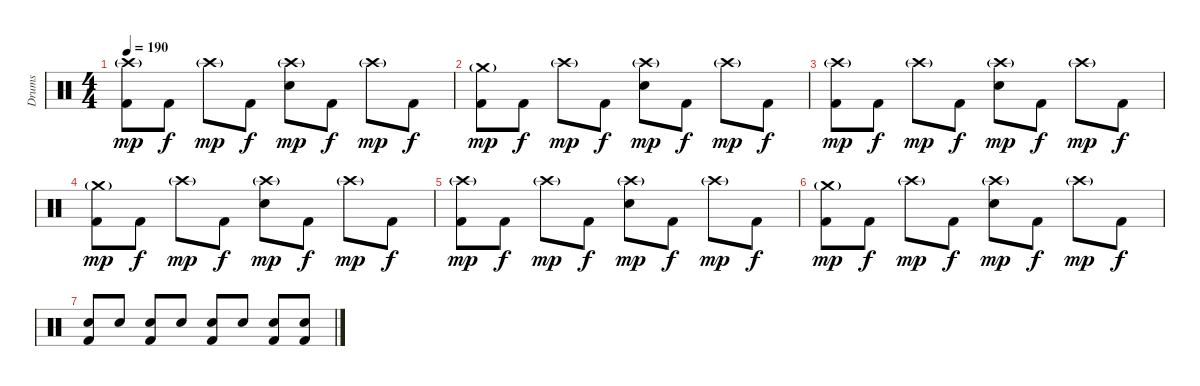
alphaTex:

\track ("Drums" "Drums") {instrument percussion}
\staff {score}
\articulation defaults
\ts (4 4)
\tempo 190
\clef neutral
\ks c
("Crash high (hit)"{g} "Kick (hit) 2").8{dy mp} "Kick (hit) 2".8{dy f} "Crash high (hit)"{g}.8{dy mp} "Kick (hit) 2".8{dy f} ("Crash high (hit)"{g} "Snare (hit) 2").8{dy mp} "Kick (hit) 2".8{dy f} "Crash high (hit)"{g}.8{dy mp} "Kick (hit) 2".8{dy f} |
("Crash medium (hit)"{g} "Kick (hit) 2").8{dy mp} "Kick (hit) 2".8{dy f} "Crash high (hit)"{g}.8{dy mp} "Kick (hit) 2".8{dy f} ("Crash high (hit)"{g} "Snare (hit) 2").8{dy mp} "Kick (hit) 2".8{dy f} "Crash high (hit)"{g}.8{dy mp} "Kick (hit) 2".8{dy f} |
("Crash high (hit)"{g} "Kick (hit) 2").8{dy mp} "Kick (hit) 2".8{dy f} "Crash high (hit)"{g}.8{dy mp} "Kick (hit) 2".8{dy f} ("Crash high (hit)"{g} "Snare (hit) 2").8{dy mp} "Kick (hit) 2".8{dy f} "Crash high (hit)"{g}.8{dy mp} "Kick (hit) 2".8{dy f} |
("Crash medium (hit)"{g} "Kick (hit) 2").8{dy mp} "Kick (hit) 2".8{dy f} "Crash high (hit)"{g}.8{dy mp} "Kick (hit) 2".8{dy f} ("Crash high (hit)"{g} "Snare (hit) 2").8{dy mp} "Kick (hit) 2".8{dy f} "Crash high (hit)"{g}.8{dy mp} "Kick (hit) 2".8{dy f} |
("Crash high (hit)"{g} "Kick (hit) 2").8{dy mp} "Kick (hit) 2".8{dy f} "Crash high (hit)"{g}.8{dy mp} "Kick (hit) 2".8{dy f} ("Crash high (hit)"{g} "Snare (hit) 2").8{dy mp} "Kick (hit) 2".8{dy f} "Crash high (hit)"{g}.8{dy mp} "Kick (hit) 2".8{dy f} |
("Crash medium (hit)"{g} "Kick (hit) 2").8{dy mp} "Kick (hit) 2".8{dy f} "Crash high (hit)"{g}.8{dy mp} "Kick (hit) 2".8{dy f} ("Crash high (hit)"{g} "Snare (hit) 2").8{dy mp} "Kick (hit) 2".8{dy f} "Crash high (hit)"{g}.8{dy mp} "Kick (hit) 2".8{dy f} |
("Snare (hit) 2" "Kick (hit) 2").8 "Snare (hit) 2".8 ("Snare (hit) 2" "Kick (hit) 2").8 "Snare (hit) 2".8 ("Snare (hit) 2" "Kick (hit) 2").8 "Snare (hit) 2".8 ("Snare (hit) 2" "Kick (hit) 2").8 ("Snare (hit) 2" "Kick (hit) 2").8
